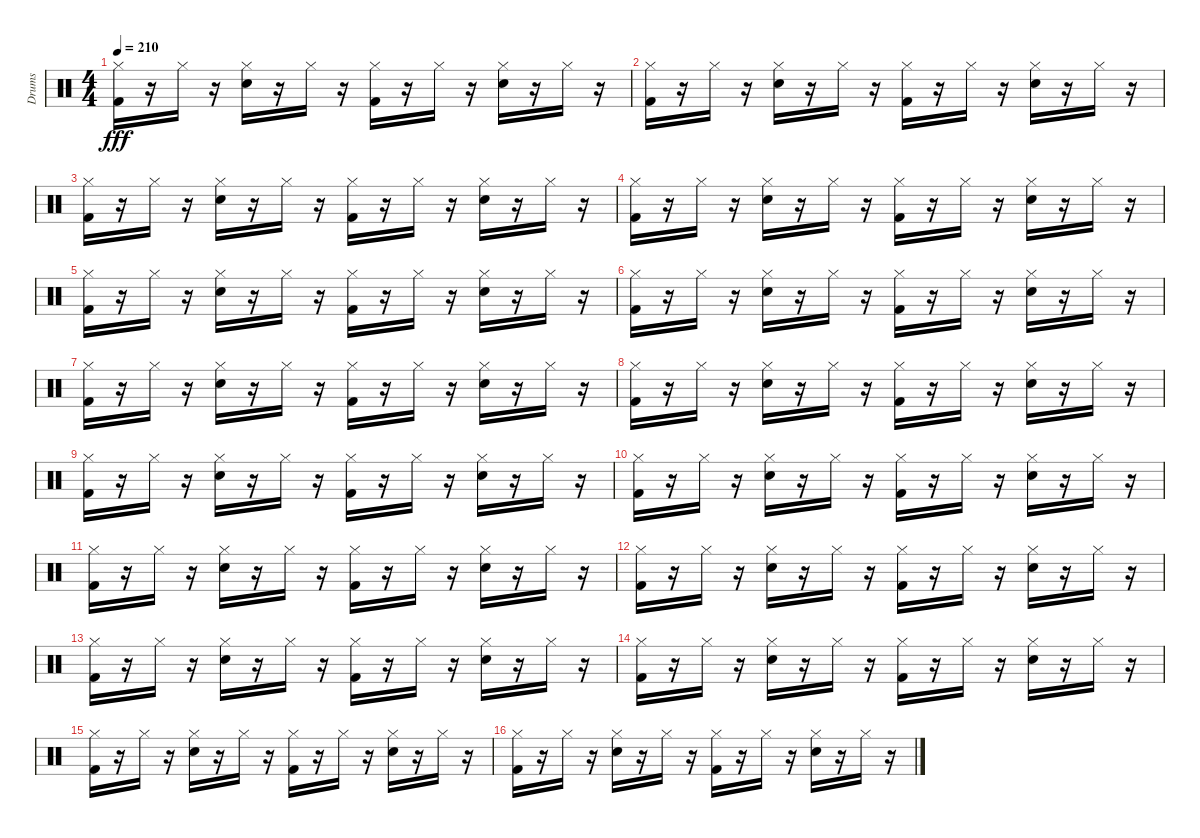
\track ("Drums" "Drums") {instrument percussion}
\staff {score}
\articulation defaults
\ts (4 4)
\tempo 210
\clef neutral
\ks c
("Kick (hit) 2" "Hi-Hat (closed)").16{dy fff} r.16 "Hi-Hat (closed)".16 r.16 ("Snare (hit) 2" "Hi-Hat (closed)").16 r.16 "Hi-Hat (closed)".16 r.16 ("Hi-Hat (closed)" "Kick (hit) 2").16 r.16 "Hi-Hat (closed)".16 r.16 ("Hi-Hat (closed)" "Snare (hit) 2").16 r.16 "Hi-Hat (closed)".16 r.16 |
("Kick (hit) 2" "Hi-Hat (closed)").16 r.16 "Hi-Hat (closed)".16 r.16 ("Hi-Hat (closed)" "Snare (hit) 2").16 r.16 "Hi-Hat (closed)".16 r.16 ("Kick (hit) 2" "Hi-Hat (closed)").16 r.16 "Hi-Hat (closed)".16 r.16 ("Hi-Hat (closed)" "Snare (hit) 2").16 r.16 "Hi-Hat (closed)".16 r.16 |
("Kick (hit) 2" "Hi-Hat (closed)").16 r.16 "Hi-Hat (closed)".16 r.16 ("Snare (hit) 2" "Hi-Hat (closed)").16 r.16 "Hi-Hat (closed)".16 r.16 ("Hi-Hat (closed)" "Kick (hit) 2").16 r.16 "Hi-Hat (closed)".16 r.16 ("Snare (hit) 2" "Hi-Hat (closed)").16 r.16 "Hi-Hat (closed)".16 r.16 |
("Kick (hit) 2" "Hi-Hat (closed)").16 r.16 "Hi-Hat (closed)".16 r.16 ("Hi-Hat (closed)" "Snare (hit) 2").16 r.16 "Hi-Hat (closed)".16 r.16 ("Hi-Hat (closed)" "Kick (hit) 2").16 r.16 "Hi-Hat (closed)".16 r.16 ("Hi-Hat (closed)" "Snare (hit) 2").16 r.16 "Hi-Hat (closed)".16 r.16 |
("Hi-Hat (closed)" "Kick (hit) 2").16 r.16 "Hi-Hat (closed)".16 r.16 ("Hi-Hat (closed)" "Snare (hit) 2").16 r.16 "Hi-Hat (closed)".16 r.16 ("Hi-Hat (closed)" "Kick (hit) 2").16 r.16 "Hi-Hat (closed)".16 r.16 ("Snare (hit) 2" "Hi-Hat (closed)").16 r.16 "Hi-Hat (closed)".16 r.16 |
("Kick (hit) 2" "Hi-Hat (closed)").16 r.16 "Hi-Hat (closed)".16 r.16 ("Snare (hit) 2" "Hi-Hat (closed)").16 r.16 "Hi-Hat (closed)".16 r.16 ("Kick (hit) 2" "Hi-Hat (closed)").16 r.16 "Hi-Hat (closed)".16 r.16 ("Snare (hit) 2" "Hi-Hat (closed)").16 r.16 "Hi-Hat (closed)".16 r.16 |
("Kick (hit) 2" "Hi-Hat (closed)").16 r.16 "Hi-Hat (closed)".16 r.16 ("Snare (hit) 2" "Hi-Hat (closed)").16 r.16 "Hi-Hat (closed)".16 r.16 ("Kick (hit) 2" "Hi-Hat (closed)").16 r.16 "Hi-Hat (closed)".16 r.16 ("Snare (hit) 2" "Hi-Hat (closed)").16 r.16 "Hi-Hat (closed)".16 r.16 |
("Hi-Hat (closed)" "Kick (hit) 2").16 r.16 "Hi-Hat (closed)".16 r.16 ("Snare (hit) 2" "Hi-Hat (closed)").16 r.16 "Hi-Hat (closed)".16 r.16 ("Kick (hit) 2" "Hi-Hat (closed)").16 r.16 "Hi-Hat (closed)".16 r.16 ("Hi-Hat (closed)" "Snare (hit) 2").16 r.16 "Hi-Hat (closed)".16 r.16 |
("Hi-Hat (closed)" "Kick (hit) 2").16 r.16 "Hi-Hat (closed)".16 r.16 ("Hi-Hat (closed)" "Snare (hit) 2").16 r.16 "Hi-Hat (closed)".16 r.16 ("Hi-Hat (closed)" "Kick (hit) 2").16 r.16 "Hi-Hat (closed)".16 r.16 ("Snare (hit) 2" "Hi-Hat (closed)").16 r.16 "Hi-Hat (closed)".16 r.16 |
("Kick (hit) 2" "Hi-Hat (closed)").16 r.16 "Hi-Hat (closed)".16 r.16 ("Hi-Hat (closed)" "Snare (hit) 2").16 r.16 "Hi-Hat (closed)".16 r.16 ("Kick (hit) 2" "Hi-Hat (closed)").16 r.16 "Hi-Hat (closed)".16 r.16 ("Hi-Hat (closed)" "Snare (hit) 2").16 r.16 "Hi-Hat (closed)".16 r.16 |
("Kick (hit) 2" "Hi-Hat (closed)").16 r.16 "Hi-Hat (closed)".16 r.16 ("Hi-Hat (closed)" "Snare (hit) 2").16 r.16 "Hi-Hat (closed)".16 r.16 ("Kick (hit) 2" "Hi-Hat (closed)").16 r.16 "Hi-Hat (closed)".16 r.16 ("Snare (hit) 2" "Hi-Hat (closed)").16 r.16 "Hi-Hat (closed)".16 r.16 |
("Hi-Hat (closed)" "Kick (hit) 2").16 r.16 "Hi-Hat (closed)".16 r.16 ("Snare (hit) 2" "Hi-Hat (closed)").16 r.16 "Hi-Hat (closed)".16 r.16 ("Kick (hit) 2" "Hi-Hat (closed)").16 r.16 "Hi-Hat (closed)".16 r.16 ("Hi-Hat (closed)" "Snare (hit) 2").16 r.16 "Hi-Hat (closed)".16 r.16 |
("Hi-Hat (closed)" "Kick (hit) 2").16 r.16 "Hi-Hat (closed)".16 r.16 ("Hi-Hat (closed)" "Snare (hit) 2").16 r.16 "Hi-Hat (closed)".16 r.16 ("Kick (hit) 2" "Hi-Hat (closed)").16 r.16 "Hi-Hat (closed)".16 r.16 ("Snare (hit) 2" "Hi-Hat (closed)").16 r.16 "Hi-Hat (closed)".16 r.16 |
("Kick (hit) 2" "Hi-Hat (closed)").16 r.16 "Hi-Hat (closed)".16 r.16 ("Hi-Hat (closed)" "Snare (hit) 2").16 r.16 "Hi-Hat (closed)".16 r.16 ("Kick (hit) 2" "Hi-Hat (closed)").16 r.16 "Hi-Hat (closed)".16 r.16 ("Hi-Hat (closed)" "Snare (hit) 2").16 r.16 "Hi-Hat (closed)".16 r.16 |
("Hi-Hat (closed)" "Kick (hit) 2").16 r.16 "Hi-Hat (closed)".16 r.16 ("Hi-Hat (closed)" "Snare (hit) 2").16 r.16 "Hi-Hat (closed)".16 r.16 ("Hi-Hat (closed)" "Kick (hit) 2").16 r.16 "Hi-Hat (closed)".16 r.16 ("Snare (hit) 2" "Hi-Hat (closed)").16 r.16 "Hi-Hat (closed)".16 r.16 |
("Hi-Hat (closed)" "Kick (hit) 2").16 r.16 "Hi-Hat (closed)".16 r.16 ("Hi-Hat (closed)" "Snare (hit) 2").16 r.16 "Hi-Hat (closed)".16 r.16 ("Hi-Hat (closed)" "Kick (hit) 2").16 r.16 "Hi-Hat (closed)".16 r.16 ("Hi-Hat (closed)" "Snare (hit) 2").16 r.16 "Hi-Hat (closed)".16 r.16
